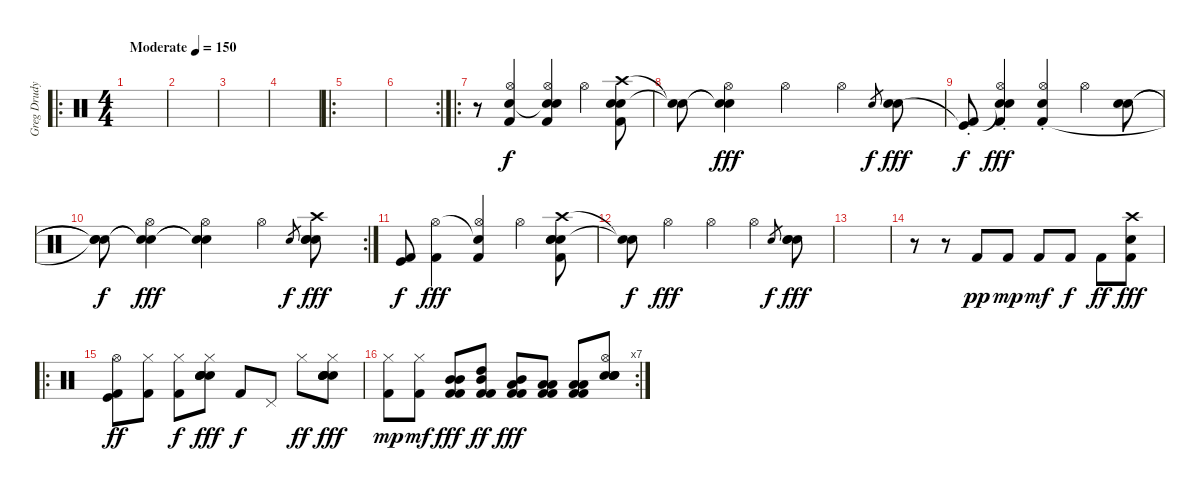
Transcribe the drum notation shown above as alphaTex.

\track ("Greg Drudy" "Greg Drudy") {instrument percussion}
\staff {score}
\articulation defaults
\ro
\ts (4 4)
\tempo (150 "Moderate")
\clef neutral
\ks c
|
|
|
|
\ro
|
\rc 2
|
\ro
r.8 ("Snare (hit) 2" "Hi-Hat (open)" "Kick (hit) 2").4 ("Snare (hit)"{t} "Snare (hit) 2" "Hi-Hat (open)" "Kick (hit) 2").4 "Hi-Hat (open)".4 ("Crash high (hit)" "Electric Snare (hit)" "Snare (hit) 2" "Kick (hit) 2").8 |
("Snare (hit)"{t} "Snare (hit)"{t}).8{dy f} ("Snare (hit)"{t} "Snare (hit)"{t} "Hi-Hat (open)").4{dy fff} "Hi-Hat (open)".4 "Hi-Hat (open)".4 "Snare (hit) 2".8{gr dy f} ("Snare (hit) 2" "Snare (hit) 2").8{dy fff} |
("Kick (hit)"{t} "Kick (hit) 2"{st}).8{dy f} ("Snare (hit)"{t} "Snare (hit) 2" "Hi-Hat (open)" "Kick (hit) 2"{st}).4{dy fff} ("Snare (hit) 2" "Hi-Hat (open)" "Kick (hit) 2"{st}).4 "Hi-Hat (open)".4 ("Electric Snare (hit)" "Snare (hit) 2").8 |
\rc 2
("Snare (hit)"{t} "Snare (hit)"{t} "Snare (hit)"{t}).8{dy f} ("Snare (hit)"{t} "Snare (hit)"{t} "Hi-Hat (open)").4{dy fff} ("Snare (hit)"{t} "Snare (hit)"{t} "Hi-Hat (open)").4 "Hi-Hat (open)".4 "Snare (hit) 2".8{gr dy f} ("Crash high (hit)" "Snare (hit) 2" "Electric Snare (hit)" "Snare (hit) 2").8{dy fff} |
("Kick (hit)" "Kick (hit) 2").8{dy f} ("Hi-Hat (open)" "Kick (hit) 2").4{dy fff} ("Snare (hit)"{t} "Hi-Hat (open)" "Kick (hit) 2").4 "Hi-Hat (open)".4 ("Crash high (hit)" "Electric Snare (hit)" "Electric Snare (hit)" "Snare (hit) 2" "Kick (hit) 2").8 |
("Snare (hit)"{t} "Snare (hit)"{t}).8{dy f} "Hi-Hat (open)".4{dy fff} "Hi-Hat (open)".4 "Hi-Hat (open)".4 "Snare (hit) 2".8{gr dy f} ("Snare (hit) 2" "Electric Snare (hit)" "Snare (hit) 2").8{dy fff} |
|
r.8 r.8 "Kick (hit) 2".8{dy pp} "Kick (hit) 2".8{dy mp} "Kick (hit) 2".8{dy mf} "Kick (hit) 2".8{dy f} "Kick (hit) 2".8{dy ff} ("Crash high (hit)" "Snare (hit) 2" "Kick (hit) 2").8{dy fff} |
\ro
("Hi-Hat (open)" "Kick (hit)" "Kick (hit) 2").8{dy ff} ("Hi-Hat (closed)" "Kick (hit) 2").8 ("Hi-Hat (closed)" "Kick (hit) 2").8{dy f} ("Hi-Hat (closed)" "Snare (hit) 2" "Snare (hit) 2" "Electric Snare (hit)" "Electric Snare (hit)").8{dy fff} "Kick (hit) 2".8{dy f} "Pedal Hi-Hat (hit)".8 "Hi-Hat (closed)".8{dy ff} ("Hi-Hat (closed)" "Snare (hit) 2" "Snare (hit) 2" "Electric Snare (hit)" "Electric Snare (hit)").8{dy fff} |
\rc 7
("Hi-Hat (closed)" "Kick (hit) 2").8{dy mp} ("Hi-Hat (closed)" "Kick (hit) 2").8{dy mf} ("Mid Tom (hit)" "Mid Tom (hit)" "Kick (hit) 2" "Kick (hit) 2").8{dy fff} ("High Tom (hit)" "Mid Tom (hit)" "Kick (hit) 2" "Kick (hit) 2").8{dy ff} ("Mid Tom (hit)" "Low Tom (hit)" "Kick (hit) 2" "Kick (hit) 2").8{dy fff} ("Low Tom (hit)" "Low Tom (hit)" "Kick (hit) 2" "Kick (hit) 2").8 ("Low Tom (hit)" "Low Tom (hit)" "Kick (hit) 2" "Kick (hit) 2").8 ("Hi-Hat (open)" "Snare (hit) 2" "Snare (hit) 2" "Electric Snare (hit)" "Electric Snare (hit)").8
